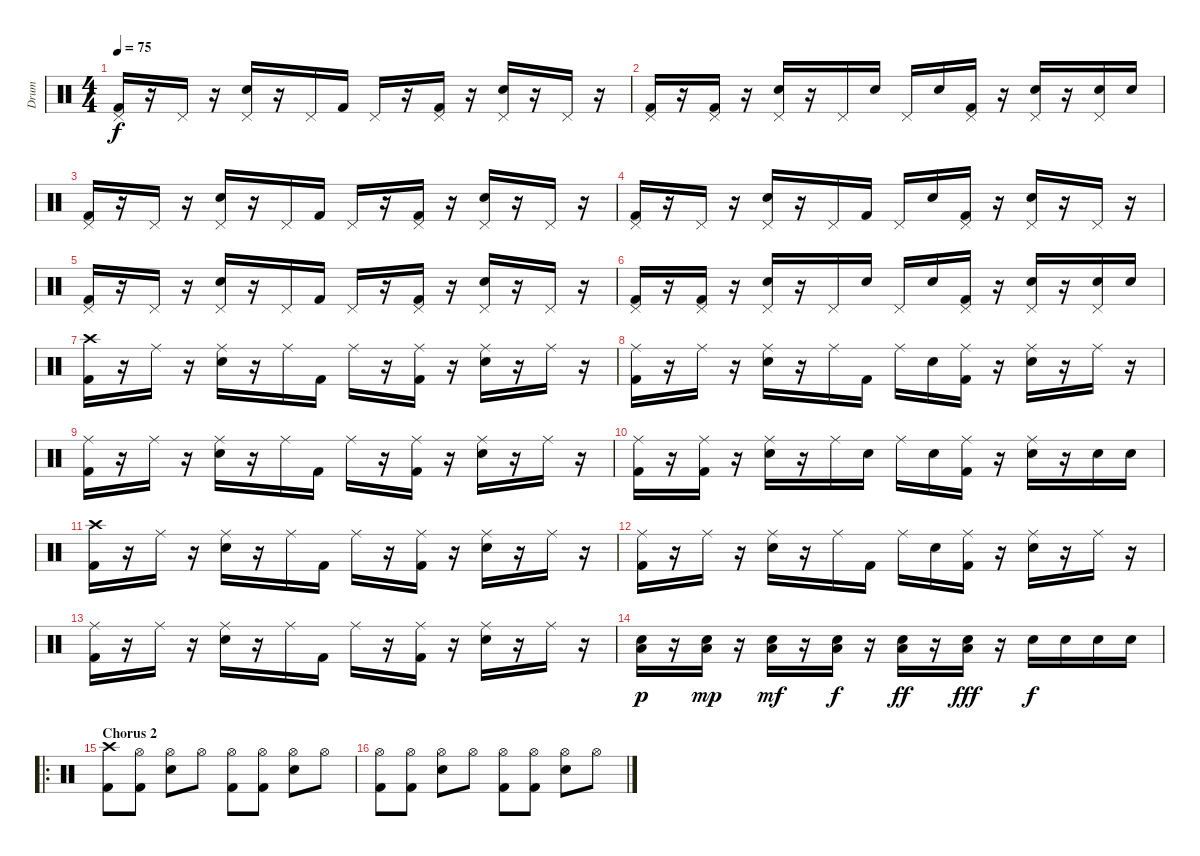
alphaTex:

\track ("Drum" "Drum") {instrument percussion}
\staff {score}
\articulation defaults
\ts (4 4)
\tempo 75
\clef neutral
\ks c
("Pedal Hi-Hat (hit)" "Kick (hit) 2").16{dy f} r.16 "Pedal Hi-Hat (hit)".16 r.16 ("Pedal Hi-Hat (hit)" "Electric Snare (hit)").16 r.16 "Pedal Hi-Hat (hit)".16 "Kick (hit) 2".16 "Pedal Hi-Hat (hit)".16 r.16 ("Pedal Hi-Hat (hit)" "Kick (hit) 2").16 r.16 ("Pedal Hi-Hat (hit)" "Electric Snare (hit)").16 r.16 "Pedal Hi-Hat (hit)".16 r.16 |
("Pedal Hi-Hat (hit)" "Kick (hit) 2").16 r.16 ("Pedal Hi-Hat (hit)" "Kick (hit) 2").16 r.16 ("Pedal Hi-Hat (hit)" "Electric Snare (hit)").16 r.16 "Pedal Hi-Hat (hit)".16 "Electric Snare (hit)".16 "Pedal Hi-Hat (hit)".16 "Electric Snare (hit)".16 ("Pedal Hi-Hat (hit)" "Kick (hit) 2").16 r.16 ("Pedal Hi-Hat (hit)" "Electric Snare (hit)").16 r.16 ("Pedal Hi-Hat (hit)" "Electric Snare (hit)").16 "Electric Snare (hit)".16 |
("Pedal Hi-Hat (hit)" "Kick (hit) 2").16 r.16 "Pedal Hi-Hat (hit)".16 r.16 ("Pedal Hi-Hat (hit)" "Electric Snare (hit)").16 r.16 "Pedal Hi-Hat (hit)".16 "Kick (hit) 2".16 "Pedal Hi-Hat (hit)".16 r.16 ("Pedal Hi-Hat (hit)" "Kick (hit) 2").16 r.16 ("Pedal Hi-Hat (hit)" "Electric Snare (hit)").16 r.16 "Pedal Hi-Hat (hit)".16 r.16 |
("Pedal Hi-Hat (hit)" "Kick (hit) 2").16 r.16 "Pedal Hi-Hat (hit)".16 r.16 ("Pedal Hi-Hat (hit)" "Electric Snare (hit)").16 r.16 "Pedal Hi-Hat (hit)".16 "Kick (hit) 2".16 "Pedal Hi-Hat (hit)".16 "Electric Snare (hit)".16 ("Pedal Hi-Hat (hit)" "Kick (hit) 2").16 r.16 ("Pedal Hi-Hat (hit)" "Electric Snare (hit)").16 r.16 "Pedal Hi-Hat (hit)".16 r.16 |
("Pedal Hi-Hat (hit)" "Kick (hit) 2").16 r.16 "Pedal Hi-Hat (hit)".16 r.16 ("Pedal Hi-Hat (hit)" "Electric Snare (hit)").16 r.16 "Pedal Hi-Hat (hit)".16 "Kick (hit) 2".16 "Pedal Hi-Hat (hit)".16 r.16 ("Pedal Hi-Hat (hit)" "Kick (hit) 2").16 r.16 ("Pedal Hi-Hat (hit)" "Electric Snare (hit)").16 r.16 "Pedal Hi-Hat (hit)".16 r.16 |
("Pedal Hi-Hat (hit)" "Kick (hit) 2").16 r.16 ("Pedal Hi-Hat (hit)" "Kick (hit) 2").16 r.16 ("Pedal Hi-Hat (hit)" "Electric Snare (hit)").16 r.16 "Pedal Hi-Hat (hit)".16 "Electric Snare (hit)".16 "Pedal Hi-Hat (hit)".16 "Electric Snare (hit)".16 ("Pedal Hi-Hat (hit)" "Kick (hit) 2").16 r.16 ("Pedal Hi-Hat (hit)" "Electric Snare (hit)").16 r.16 ("Pedal Hi-Hat (hit)" "Electric Snare (hit)").16 "Electric Snare (hit)".16 |
("Crash high (hit)" "Kick (hit) 2").16 r.16 "Ride (middle)".16 r.16 ("Ride (middle)" "Electric Snare (hit)").16 r.16 "Ride (middle)".16 "Kick (hit) 2".16 "Ride (middle)".16 r.16 ("Ride (middle)" "Kick (hit) 2").16 r.16 ("Ride (middle)" "Electric Snare (hit)").16 r.16 "Ride (middle)".16 r.16 |
("Ride (middle)" "Kick (hit) 2").16 r.16 "Ride (middle)".16 r.16 ("Ride (middle)" "Electric Snare (hit)").16 r.16 "Ride (middle)".16 "Kick (hit) 2".16 "Ride (middle)".16 "Electric Snare (hit)".16 ("Ride (middle)" "Kick (hit) 2").16 r.16 ("Ride (middle)" "Electric Snare (hit)").16 r.16 "Ride (middle)".16 r.16 |
("Ride (middle)" "Kick (hit) 2").16 r.16 "Ride (middle)".16 r.16 ("Ride (middle)" "Electric Snare (hit)").16 r.16 "Ride (middle)".16 "Kick (hit) 2".16 "Ride (middle)".16 r.16 ("Ride (middle)" "Kick (hit) 2").16 r.16 ("Ride (middle)" "Electric Snare (hit)").16 r.16 "Ride (middle)".16 r.16 |
("Ride (middle)" "Kick (hit) 2").16 r.16 ("Ride (middle)" "Kick (hit) 2").16 r.16 ("Ride (middle)" "Electric Snare (hit)").16 r.16 "Ride (middle)".16 "Electric Snare (hit)".16 "Ride (middle)".16 "Electric Snare (hit)".16 ("Ride (middle)" "Kick (hit) 2").16 r.16 ("Ride (middle)" "Electric Snare (hit)").16 r.16 "Electric Snare (hit)".16 "Electric Snare (hit)".16 |
("Crash high (hit)" "Kick (hit) 2").16 r.16 "Ride (middle)".16 r.16 ("Ride (middle)" "Electric Snare (hit)").16 r.16 "Ride (middle)".16 "Kick (hit) 2".16 "Ride (middle)".16 r.16 ("Ride (middle)" "Kick (hit) 2").16 r.16 ("Ride (middle)" "Electric Snare (hit)").16 r.16 "Ride (middle)".16 r.16 |
("Ride (middle)" "Kick (hit) 2").16 r.16 "Ride (middle)".16 r.16 ("Ride (middle)" "Electric Snare (hit)").16 r.16 "Ride (middle)".16 "Kick (hit) 2".16 "Ride (middle)".16 "Electric Snare (hit)".16 ("Ride (middle)" "Kick (hit) 2").16 r.16 ("Ride (middle)" "Electric Snare (hit)").16 r.16 "Ride (middle)".16 r.16 |
("Ride (middle)" "Kick (hit) 2").16 r.16 "Ride (middle)".16 r.16 ("Ride (middle)" "Electric Snare (hit)").16 r.16 "Ride (middle)".16 "Kick (hit) 2".16 "Ride (middle)".16 r.16 ("Ride (middle)" "Kick (hit) 2").16 r.16 ("Ride (middle)" "Electric Snare (hit)").16 r.16 "Ride (middle)".16 r.16 |
("Low Floor Tom (hit)" "Electric Snare (hit)").16{dy p} r.16 ("Low Floor Tom (hit)" "Electric Snare (hit)").16{dy mp} r.16 ("Low Floor Tom (hit)" "Electric Snare (hit)").16{dy mf} r.16 ("Low Floor Tom (hit)" "Electric Snare (hit)").16{dy f} r.16 ("Low Floor Tom (hit)" "Electric Snare (hit)").16{dy ff} r.16 ("Low Floor Tom (hit)" "Electric Snare (hit)").16{dy fff} r.16 "Electric Snare (hit)".16{dy f} "Electric Snare (hit)".16 "Electric Snare (hit)".16 "Electric Snare (hit)".16 |
\ro
\section ("" "Chorus 2")
("Crash high (hit)" "Kick (hit) 2").8 ("Hi-Hat (open)" "Kick (hit) 2").8 ("Hi-Hat (open)" "Electric Snare (hit)").8 "Hi-Hat (open)".8 ("Hi-Hat (open)" "Kick (hit) 2").8 ("Hi-Hat (open)" "Kick (hit) 2").8 ("Hi-Hat (open)" "Electric Snare (hit)").8 "Hi-Hat (open)".8 |
("Hi-Hat (open)" "Kick (hit) 2").8 ("Hi-Hat (open)" "Kick (hit) 2").8 ("Hi-Hat (open)" "Electric Snare (hit)").8 "Hi-Hat (open)".8 ("Hi-Hat (open)" "Kick (hit) 2").8 ("Hi-Hat (open)" "Kick (hit) 2").8 ("Hi-Hat (open)" "Electric Snare (hit)").8 "Hi-Hat (open)".8
